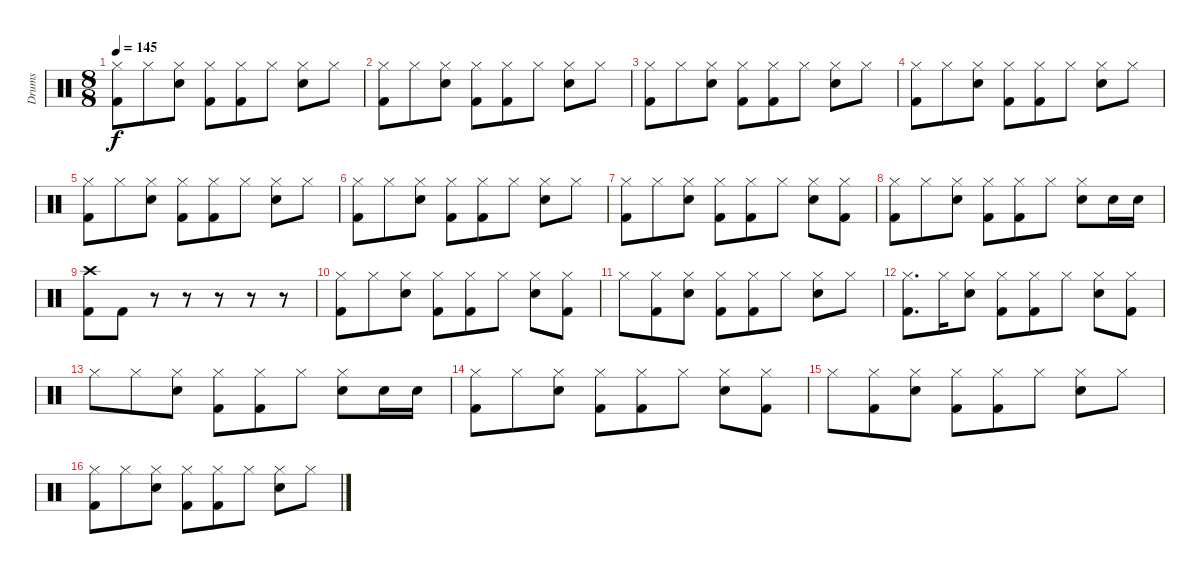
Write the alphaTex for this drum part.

\track ("Drums" "Drums") {instrument percussion}
\staff {score}
\articulation defaults
\ts (8 8)
\tempo 145
\clef neutral
\ks c
("Kick (hit) 2" "Hi-Hat (closed)").8{dy f} "Hi-Hat (closed)".8 ("Snare (hit) 2" "Hi-Hat (closed)").8 ("Kick (hit) 2" "Hi-Hat (closed)").8 ("Kick (hit) 2" "Hi-Hat (closed)").8 "Hi-Hat (closed)".8 ("Snare (hit) 2" "Hi-Hat (closed)").8 "Hi-Hat (closed)".8 |
("Kick (hit) 2" "Hi-Hat (closed)").8 "Hi-Hat (closed)".8 ("Snare (hit) 2" "Hi-Hat (closed)").8 ("Kick (hit) 2" "Hi-Hat (closed)").8 ("Kick (hit) 2" "Hi-Hat (closed)").8 "Hi-Hat (closed)".8 ("Snare (hit) 2" "Hi-Hat (closed)").8 "Hi-Hat (closed)".8 |
("Kick (hit) 2" "Hi-Hat (closed)").8 "Hi-Hat (closed)".8 ("Snare (hit) 2" "Hi-Hat (closed)").8 ("Kick (hit) 2" "Hi-Hat (closed)").8 ("Kick (hit) 2" "Hi-Hat (closed)").8 "Hi-Hat (closed)".8 ("Snare (hit) 2" "Hi-Hat (closed)").8 "Hi-Hat (closed)".8 |
("Kick (hit) 2" "Hi-Hat (closed)").8 "Hi-Hat (closed)".8 ("Snare (hit) 2" "Hi-Hat (closed)").8 ("Kick (hit) 2" "Hi-Hat (closed)").8 ("Kick (hit) 2" "Hi-Hat (closed)").8 "Hi-Hat (closed)".8 ("Snare (hit) 2" "Hi-Hat (closed)").8 "Hi-Hat (closed)".8 |
("Kick (hit) 2" "Hi-Hat (closed)").8 "Hi-Hat (closed)".8 ("Snare (hit) 2" "Hi-Hat (closed)").8 ("Kick (hit) 2" "Hi-Hat (closed)").8 ("Kick (hit) 2" "Hi-Hat (closed)").8 "Hi-Hat (closed)".8 ("Snare (hit) 2" "Hi-Hat (closed)").8 "Hi-Hat (closed)".8 |
("Kick (hit) 2" "Hi-Hat (closed)").8 "Hi-Hat (closed)".8 ("Snare (hit) 2" "Hi-Hat (closed)").8 ("Kick (hit) 2" "Hi-Hat (closed)").8 ("Kick (hit) 2" "Hi-Hat (closed)").8 "Hi-Hat (closed)".8 ("Snare (hit) 2" "Hi-Hat (closed)").8 "Hi-Hat (closed)".8 |
("Kick (hit) 2" "Hi-Hat (closed)").8 "Hi-Hat (closed)".8 ("Snare (hit) 2" "Hi-Hat (closed)").8 ("Kick (hit) 2" "Hi-Hat (closed)").8 ("Kick (hit) 2" "Hi-Hat (closed)").8 "Hi-Hat (closed)".8 ("Snare (hit) 2" "Hi-Hat (closed)").8 ("Kick (hit) 2" "Hi-Hat (closed)").8 |
("Kick (hit) 2" "Hi-Hat (closed)").8 "Hi-Hat (closed)".8 ("Snare (hit) 2" "Hi-Hat (closed)").8 ("Kick (hit) 2" "Hi-Hat (closed)").8 ("Kick (hit) 2" "Hi-Hat (closed)").8 "Hi-Hat (closed)".8 ("Snare (hit) 2" "Hi-Hat (closed)").8 "Snare (hit) 2".16 "Snare (hit) 2".16 |
("Kick (hit) 2" "Crash high (hit)").8 "Kick (hit) 2".8 r.8 r.8 r.8 r.8 r.8 |
("Kick (hit) 2" "Hi-Hat (closed)").8 "Hi-Hat (closed)".8 ("Snare (hit) 2" "Hi-Hat (closed)").8 ("Kick (hit) 2" "Hi-Hat (closed)").8 ("Kick (hit) 2" "Hi-Hat (closed)").8 "Hi-Hat (closed)".8 ("Snare (hit) 2" "Hi-Hat (closed)").8 ("Kick (hit) 2" "Hi-Hat (closed)").8 |
"Hi-Hat (closed)".8 ("Kick (hit) 2" "Hi-Hat (closed)").8 ("Snare (hit) 2" "Hi-Hat (closed)").8 ("Kick (hit) 2" "Hi-Hat (closed)").8 ("Kick (hit) 2" "Hi-Hat (closed)").8 "Hi-Hat (closed)".8 ("Snare (hit) 2" "Hi-Hat (closed)").8 "Hi-Hat (closed)".8 |
("Kick (hit) 2" "Hi-Hat (closed)").8{d} "Hi-Hat (closed)".16 ("Snare (hit) 2" "Hi-Hat (closed)").8 ("Kick (hit) 2" "Hi-Hat (closed)").8 ("Kick (hit) 2" "Hi-Hat (closed)").8 "Hi-Hat (closed)".8 ("Snare (hit) 2" "Hi-Hat (closed)").8 ("Kick (hit) 2" "Hi-Hat (closed)").8 |
"Hi-Hat (closed)".8 "Hi-Hat (closed)".8 ("Snare (hit) 2" "Hi-Hat (closed)").8 ("Kick (hit) 2" "Hi-Hat (closed)").8 ("Kick (hit) 2" "Hi-Hat (closed)").8 "Hi-Hat (closed)".8 ("Snare (hit) 2" "Hi-Hat (closed)").8 "Snare (hit) 2".16 "Snare (hit) 2".16 |
("Kick (hit) 2" "Hi-Hat (closed)").8 "Hi-Hat (closed)".8 ("Snare (hit) 2" "Hi-Hat (closed)").8 ("Kick (hit) 2" "Hi-Hat (closed)").8 ("Kick (hit) 2" "Hi-Hat (closed)").8 "Hi-Hat (closed)".8 ("Snare (hit) 2" "Hi-Hat (closed)").8 ("Kick (hit) 2" "Hi-Hat (closed)").8 |
"Hi-Hat (closed)".8 ("Kick (hit) 2" "Hi-Hat (closed)").8 ("Snare (hit) 2" "Hi-Hat (closed)").8 ("Kick (hit) 2" "Hi-Hat (closed)").8 ("Kick (hit) 2" "Hi-Hat (closed)").8 "Hi-Hat (closed)".8 ("Snare (hit) 2" "Hi-Hat (closed)").8 "Hi-Hat (closed)".8 |
("Kick (hit) 2" "Hi-Hat (closed)").8 "Hi-Hat (closed)".8 ("Snare (hit) 2" "Hi-Hat (closed)").8 ("Kick (hit) 2" "Hi-Hat (closed)").8 ("Kick (hit) 2" "Hi-Hat (closed)").8 "Hi-Hat (closed)".8 ("Snare (hit) 2" "Hi-Hat (closed)").8 "Hi-Hat (closed)".8
